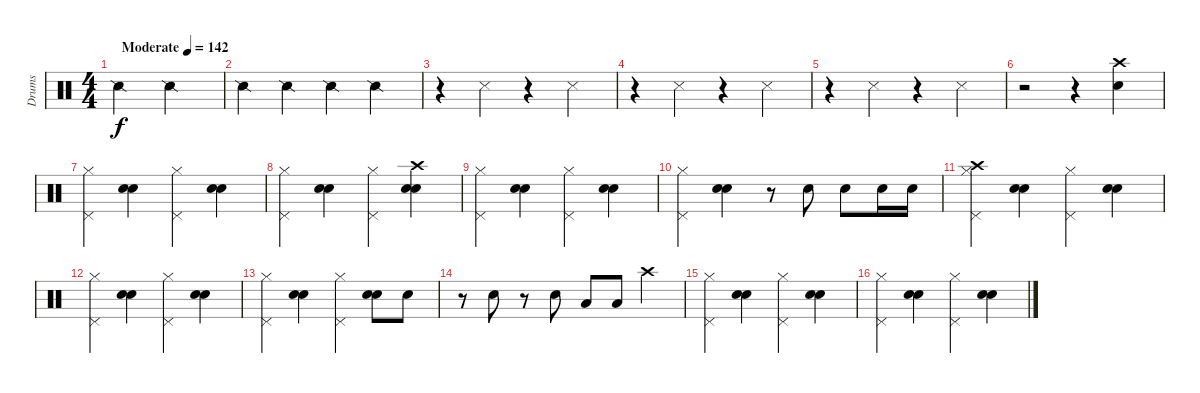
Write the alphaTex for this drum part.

\track ("Drums" "Drums") {instrument percussion}
\staff {score}
\articulation defaults
\ts (4 4)
\tempo (142 "Moderate")
\clef neutral
\ks c "Snare (side stick) 2".2{dy f} "Snare (side stick) 2".2
|
"Snare (side stick) 2".4 "Snare (side stick) 2".4 "Snare (side stick) 2".4 "Snare (side stick) 2".4 |
r.4 "Snare (side stick) 3".4 r.4 "Snare (side stick) 3".4 |
r.4 "Snare (side stick) 3".4 r.4 "Snare (side stick) 3".4 |
r.4 "Snare (side stick) 3".4 r.4 "Snare (side stick) 3".4 |
r.2 r.4 ("Crash high (hit)" "Snare (hit) 2").4 |
("Hi-Hat (closed)" "Pedal Hi-Hat (hit)").4 ("Snare (hit) 2" "Electric Snare (hit)").4 ("Hi-Hat (closed)" "Pedal Hi-Hat (hit)").4 ("Snare (hit) 2" "Electric Snare (hit)").4 |
("Hi-Hat (closed)" "Pedal Hi-Hat (hit)").4 ("Snare (hit) 2" "Electric Snare (hit)").4 ("Hi-Hat (closed)" "Pedal Hi-Hat (hit)").4 ("Crash high (hit)" "Snare (hit) 2" "Electric Snare (hit)").4 |
("Hi-Hat (closed)" "Pedal Hi-Hat (hit)").4 ("Snare (hit) 2" "Electric Snare (hit)").4 ("Hi-Hat (closed)" "Pedal Hi-Hat (hit)").4 ("Snare (hit) 2" "Electric Snare (hit)").4 |
("Hi-Hat (closed)" "Pedal Hi-Hat (hit)").4 ("Snare (hit) 2" "Electric Snare (hit)").4 r.8 "Snare (hit) 2".8 "Snare (hit) 2".8 "Snare (hit) 2".16 "Snare (hit) 2".16 |
("Crash high (hit)" "Hi-Hat (closed)" "Pedal Hi-Hat (hit)").4 ("Snare (hit) 2" "Electric Snare (hit)").4 ("Hi-Hat (closed)" "Pedal Hi-Hat (hit)").4 ("Snare (hit) 2" "Electric Snare (hit)").4 |
("Hi-Hat (closed)" "Pedal Hi-Hat (hit)").4 ("Snare (hit) 2" "Electric Snare (hit)").4 ("Hi-Hat (closed)" "Pedal Hi-Hat (hit)").4 ("Snare (hit) 2" "Electric Snare (hit)").4 |
("Hi-Hat (closed)" "Pedal Hi-Hat (hit)").4 ("Snare (hit) 2" "Electric Snare (hit)").4 ("Hi-Hat (closed)" "Pedal Hi-Hat (hit)").4 ("Snare (hit) 2" "Electric Snare (hit)").8 "Snare (hit) 2".8 |
r.8 "Snare (hit) 2".8 r.8 "Snare (hit) 2".8 "Low Tom (hit)".8 "Low Tom (hit)".8 "Crash high (hit)".4 |
("Hi-Hat (closed)" "Pedal Hi-Hat (hit)").4 ("Snare (hit) 2" "Electric Snare (hit)").4 ("Hi-Hat (closed)" "Pedal Hi-Hat (hit)").4 ("Snare (hit) 2" "Electric Snare (hit)").4 |
("Hi-Hat (closed)" "Pedal Hi-Hat (hit)").4 ("Snare (hit) 2" "Electric Snare (hit)").4 ("Hi-Hat (closed)" "Pedal Hi-Hat (hit)").4 ("Snare (hit) 2" "Electric Snare (hit)").4
